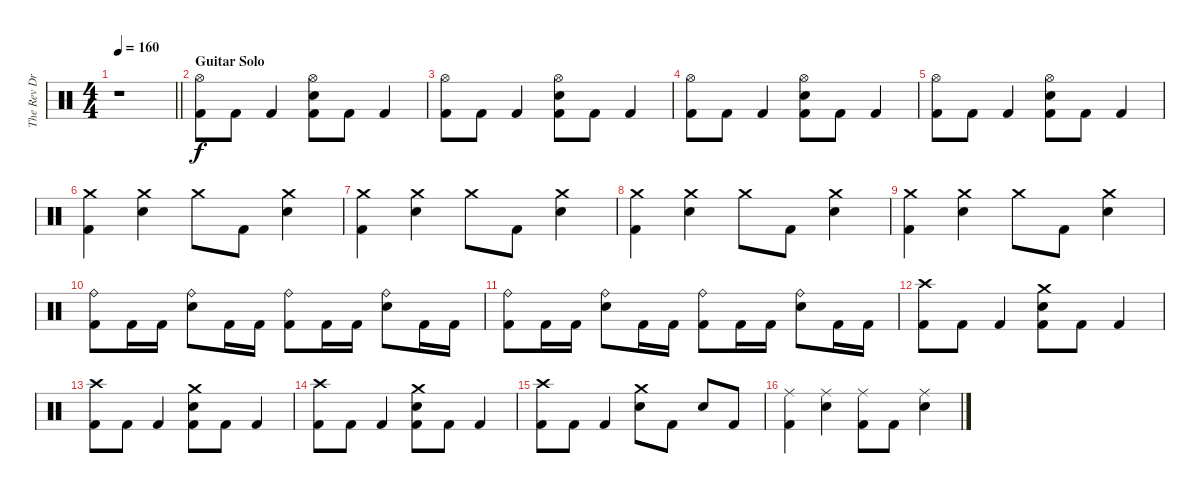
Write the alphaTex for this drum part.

\track ("The Rev Drum" "The Rev Dr") {instrument percussion}
\staff {score}
\articulation defaults
\ts (4 4)
\tempo 160
\clef neutral
\barLineRight lightlight
\ks c
r.1{dy p} |
\section ("" "Guitar Solo")
("Hi-Hat (open)" "Kick (hit) 2").8{dy f} "Kick (hit) 2".8 "Kick (hit) 2".4 ("Hi-Hat (open)" "Electric Snare (hit)" "Kick (hit) 2").8 "Kick (hit) 2".8 "Kick (hit) 2".4 |
("Hi-Hat (open)" "Kick (hit) 2").8 "Kick (hit) 2".8 "Kick (hit) 2".4 ("Hi-Hat (open)" "Electric Snare (hit)" "Kick (hit) 2").8 "Kick (hit) 2".8 "Kick (hit) 2".4 |
("Hi-Hat (open)" "Kick (hit) 2").8 "Kick (hit) 2".8 "Kick (hit) 2".4 ("Hi-Hat (open)" "Electric Snare (hit)" "Kick (hit) 2").8 "Kick (hit) 2".8 "Kick (hit) 2".4 |
("Hi-Hat (open)" "Kick (hit) 2").8 "Kick (hit) 2".8 "Kick (hit) 2".4 ("Hi-Hat (open)" "Electric Snare (hit)" "Kick (hit) 2").8 "Kick (hit) 2".8 "Kick (hit) 2".4 |
("Crash medium (hit)" "Kick (hit) 2").4 ("Crash medium (hit)" "Electric Snare (hit)").4 "Crash medium (hit)".8 "Kick (hit) 2".8 ("Crash medium (hit)" "Electric Snare (hit)").4 |
("Crash medium (hit)" "Kick (hit) 2").4 ("Crash medium (hit)" "Electric Snare (hit)").4 "Crash medium (hit)".8 "Kick (hit) 2".8 ("Crash medium (hit)" "Electric Snare (hit)").4 |
("Crash medium (hit)" "Kick (hit) 2").4 ("Crash medium (hit)" "Electric Snare (hit)").4 "Crash medium (hit)".8 "Kick (hit) 2".8 ("Crash medium (hit)" "Electric Snare (hit)").4 |
("Crash medium (hit)" "Kick (hit) 2").4 ("Crash medium (hit)" "Electric Snare (hit)").4 "Crash medium (hit)".8 "Kick (hit) 2".8 ("Crash medium (hit)" "Electric Snare (hit)").4 |
("Ride (bell)" "Kick (hit) 2").8 "Kick (hit) 2".16 "Kick (hit) 2".16 ("Ride (bell)" "Electric Snare (hit)").8 "Kick (hit) 2".16 "Kick (hit) 2".16 ("Ride (bell)" "Kick (hit) 2").8 "Kick (hit) 2".16 "Kick (hit) 2".16 ("Ride (bell)" "Electric Snare (hit)").8 "Kick (hit) 2".16 "Kick (hit) 2".16 |
("Ride (bell)" "Kick (hit) 2").8 "Kick (hit) 2".16 "Kick (hit) 2".16 ("Ride (bell)" "Electric Snare (hit)").8 "Kick (hit) 2".16 "Kick (hit) 2".16 ("Ride (bell)" "Kick (hit) 2").8 "Kick (hit) 2".16 "Kick (hit) 2".16 ("Ride (bell)" "Electric Snare (hit)").8 "Kick (hit) 2".16 "Kick (hit) 2".16 |
("Crash high (hit)" "Kick (hit) 2").8 "Kick (hit) 2".8 "Kick (hit) 2".4 ("Crash medium (hit)" "Electric Snare (hit)" "Kick (hit) 2").8 "Kick (hit) 2".8 "Kick (hit) 2".4 |
("Crash high (hit)" "Kick (hit) 2").8 "Kick (hit) 2".8 "Kick (hit) 2".4 ("Crash medium (hit)" "Electric Snare (hit)" "Kick (hit) 2").8 "Kick (hit) 2".8 "Kick (hit) 2".4 |
("Crash high (hit)" "Kick (hit) 2").8 "Kick (hit) 2".8 "Kick (hit) 2".4 ("Crash medium (hit)" "Electric Snare (hit)" "Kick (hit) 2").8 "Kick (hit) 2".8 "Kick (hit) 2".4 |
("Crash high (hit)" "Kick (hit) 2").8 "Kick (hit) 2".8 "Kick (hit) 2".4 ("Crash medium (hit)" "Electric Snare (hit)").8 "Kick (hit) 2".8 "Electric Snare (hit)".8 "Kick (hit) 2".8 |
("Ride (middle)" "Kick (hit) 2").4 ("Ride (middle)" "Electric Snare (hit)").4 ("Ride (middle)" "Kick (hit) 2").8 "Kick (hit) 2".8 ("Ride (middle)" "Electric Snare (hit)").4
